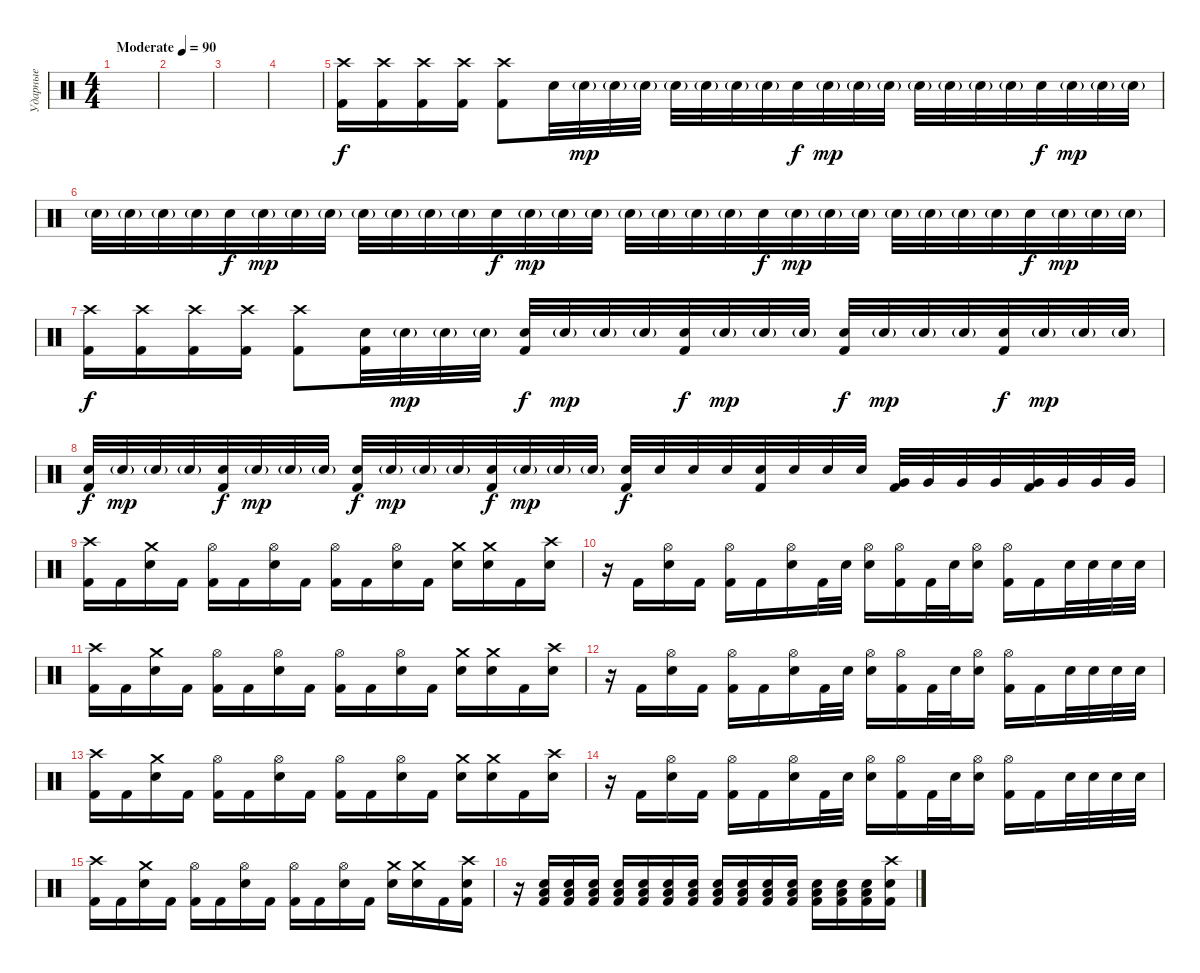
\track ("Ударные" "Ударные") {instrument percussion}
\staff {score}
\articulation defaults
\ts (4 4)
\tempo (90 "Moderate")
\clef neutral
\ks c
|
|
|
|
("Crash high (hit)" "Kick (hit) 2").16 ("Crash high (hit)" "Kick (hit) 2").16 ("Crash high (hit)" "Kick (hit) 2").16 ("Crash high (hit)" "Kick (hit) 2").16 ("Crash high (hit)" "Kick (hit) 2").8 "Electric Snare (hit)".32 "Electric Snare (hit)"{g}.32{dy mp} "Electric Snare (hit)"{g}.32 "Electric Snare (hit)"{g}.32 "Electric Snare (hit)"{g}.32 "Electric Snare (hit)"{g}.32 "Electric Snare (hit)"{g}.32 "Electric Snare (hit)"{g}.32 "Electric Snare (hit)".32{dy f} "Electric Snare (hit)"{g}.32{dy mp} "Electric Snare (hit)"{g}.32 "Electric Snare (hit)"{g}.32 "Electric Snare (hit)"{g}.32 "Electric Snare (hit)"{g}.32 "Electric Snare (hit)"{g}.32 "Electric Snare (hit)"{g}.32 "Electric Snare (hit)".32{dy f} "Electric Snare (hit)"{g}.32{dy mp} "Electric Snare (hit)"{g}.32 "Electric Snare (hit)"{g}.32 |
"Electric Snare (hit)"{g}.32 "Electric Snare (hit)"{g}.32 "Electric Snare (hit)"{g}.32 "Electric Snare (hit)"{g}.32 "Electric Snare (hit)".32{dy f} "Electric Snare (hit)"{g}.32{dy mp} "Electric Snare (hit)"{g}.32 "Electric Snare (hit)"{g}.32 "Electric Snare (hit)"{g}.32 "Electric Snare (hit)"{g}.32 "Electric Snare (hit)"{g}.32 "Electric Snare (hit)"{g}.32 "Electric Snare (hit)".32{dy f} "Electric Snare (hit)"{g}.32{dy mp} "Electric Snare (hit)"{g}.32 "Electric Snare (hit)"{g}.32 "Electric Snare (hit)"{g}.32 "Electric Snare (hit)"{g}.32 "Electric Snare (hit)"{g}.32 "Electric Snare (hit)"{g}.32 "Electric Snare (hit)".32{dy f} "Electric Snare (hit)"{g}.32{dy mp} "Electric Snare (hit)"{g}.32 "Electric Snare (hit)"{g}.32 "Electric Snare (hit)"{g}.32 "Electric Snare (hit)"{g}.32 "Electric Snare (hit)"{g}.32 "Electric Snare (hit)"{g}.32 "Electric Snare (hit)".32{dy f} "Electric Snare (hit)"{g}.32{dy mp} "Electric Snare (hit)"{g}.32 "Electric Snare (hit)"{g}.32 |
("Crash high (hit)" "Kick (hit) 2").16{dy f} ("Crash high (hit)" "Kick (hit) 2").16 ("Crash high (hit)" "Kick (hit) 2").16 ("Crash high (hit)" "Kick (hit) 2").16 ("Crash high (hit)" "Kick (hit) 2").8 ("Electric Snare (hit)" "Kick (hit) 2").32 "Electric Snare (hit)"{g}.32{dy mp} "Electric Snare (hit)"{g}.32 "Electric Snare (hit)"{g}.32 ("Electric Snare (hit)" "Kick (hit) 2").32{dy f} "Electric Snare (hit)"{g}.32{dy mp} "Electric Snare (hit)"{g}.32 "Electric Snare (hit)"{g}.32 ("Electric Snare (hit)" "Kick (hit) 2").32{dy f} "Electric Snare (hit)"{g}.32{dy mp} "Electric Snare (hit)"{g}.32 "Electric Snare (hit)"{g}.32 ("Electric Snare (hit)" "Kick (hit) 2").32{dy f} "Electric Snare (hit)"{g}.32{dy mp} "Electric Snare (hit)"{g}.32 "Electric Snare (hit)"{g}.32 ("Electric Snare (hit)" "Kick (hit) 2").32{dy f} "Electric Snare (hit)"{g}.32{dy mp} "Electric Snare (hit)"{g}.32 "Electric Snare (hit)"{g}.32 |
("Electric Snare (hit)" "Kick (hit) 2").32{dy f} "Electric Snare (hit)"{g}.32{dy mp} "Electric Snare (hit)"{g}.32 "Electric Snare (hit)"{g}.32 ("Electric Snare (hit)" "Kick (hit) 2").32{dy f} "Electric Snare (hit)"{g}.32{dy mp} "Electric Snare (hit)"{g}.32 "Electric Snare (hit)"{g}.32 ("Electric Snare (hit)" "Kick (hit) 2").32{dy f} "Electric Snare (hit)"{g}.32{dy mp} "Electric Snare (hit)"{g}.32 "Electric Snare (hit)"{g}.32 ("Electric Snare (hit)" "Kick (hit) 2").32{dy f} "Electric Snare (hit)"{g}.32{dy mp} "Electric Snare (hit)"{g}.32 "Electric Snare (hit)"{g}.32 ("Electric Snare (hit)" "Kick (hit) 2").32{dy f} "Electric Snare (hit)".32 "Electric Snare (hit)".32 "Electric Snare (hit)".32 ("Electric Snare (hit)" "Kick (hit) 2").32 "Electric Snare (hit)".32 "Electric Snare (hit)".32 "Electric Snare (hit)".32 ("Very Low Tom (hit)" "Kick (hit) 2").32 "Very Low Tom (hit)".32 "Very Low Tom (hit)".32 "Very Low Tom (hit)".32 ("Very Low Tom (hit)" "Kick (hit) 2").32 "Very Low Tom (hit)".32 "Very Low Tom (hit)".32 "Very Low Tom (hit)".32 |
("Crash high (hit)" "Kick (hit) 2").16 "Kick (hit) 2".16 ("Crash medium (hit)" "Electric Snare (hit)").16 "Kick (hit) 2".16 ("Hi-Hat (open)" "Kick (hit) 2").16 "Kick (hit) 2".16 ("Hi-Hat (open)" "Electric Snare (hit)").16 "Kick (hit) 2".16 ("Hi-Hat (open)" "Kick (hit) 2").16 "Kick (hit) 2".16 ("Hi-Hat (open)" "Electric Snare (hit)").16 "Kick (hit) 2".16 ("Crash medium (hit)" "Electric Snare (hit)").16 ("Crash medium (hit)" "Electric Snare (hit)").16 "Kick (hit) 2".16 ("Crash high (hit)" "Electric Snare (hit)").16 |
r.16 "Kick (hit) 2".16 ("Hi-Hat (open)" "Electric Snare (hit)").16 "Kick (hit) 2".16 ("Hi-Hat (open)" "Kick (hit) 2").16 "Kick (hit) 2".16 ("Hi-Hat (open)" "Electric Snare (hit)").16 "Kick (hit) 2".32 "Electric Snare (hit)".32 ("Hi-Hat (open)" "Electric Snare (hit)").16 ("Hi-Hat (open)" "Kick (hit) 2").16 "Kick (hit) 2".32 "Electric Snare (hit)".32 ("Hi-Hat (open)" "Electric Snare (hit)").16 ("Hi-Hat (open)" "Kick (hit) 2").16 "Kick (hit) 2".16 "Electric Snare (hit)".32 "Electric Snare (hit)".32 "Electric Snare (hit)".32 "Electric Snare (hit)".32 |
("Crash high (hit)" "Kick (hit) 2").16 "Kick (hit) 2".16 ("Crash medium (hit)" "Electric Snare (hit)").16 "Kick (hit) 2".16 ("Hi-Hat (open)" "Kick (hit) 2").16 "Kick (hit) 2".16 ("Hi-Hat (open)" "Electric Snare (hit)").16 "Kick (hit) 2".16 ("Hi-Hat (open)" "Kick (hit) 2").16 "Kick (hit) 2".16 ("Hi-Hat (open)" "Electric Snare (hit)").16 "Kick (hit) 2".16 ("Crash medium (hit)" "Electric Snare (hit)").16 ("Crash medium (hit)" "Electric Snare (hit)").16 "Kick (hit) 2".16 ("Crash high (hit)" "Electric Snare (hit)").16 |
r.16 "Kick (hit) 2".16 ("Hi-Hat (open)" "Electric Snare (hit)").16 "Kick (hit) 2".16 ("Hi-Hat (open)" "Kick (hit) 2").16 "Kick (hit) 2".16 ("Hi-Hat (open)" "Electric Snare (hit)").16 "Kick (hit) 2".32 "Electric Snare (hit)".32 ("Hi-Hat (open)" "Electric Snare (hit)").16 ("Hi-Hat (open)" "Kick (hit) 2").16 "Kick (hit) 2".32 "Electric Snare (hit)".32 ("Hi-Hat (open)" "Electric Snare (hit)").16 ("Hi-Hat (open)" "Kick (hit) 2").16 "Kick (hit) 2".16 "Electric Snare (hit)".32 "Electric Snare (hit)".32 "Electric Snare (hit)".32 "Electric Snare (hit)".32 |
("Crash high (hit)" "Kick (hit) 2").16 "Kick (hit) 2".16 ("Crash medium (hit)" "Electric Snare (hit)").16 "Kick (hit) 2".16 ("Hi-Hat (open)" "Kick (hit) 2").16 "Kick (hit) 2".16 ("Hi-Hat (open)" "Electric Snare (hit)").16 "Kick (hit) 2".16 ("Hi-Hat (open)" "Kick (hit) 2").16 "Kick (hit) 2".16 ("Hi-Hat (open)" "Electric Snare (hit)").16 "Kick (hit) 2".16 ("Crash medium (hit)" "Electric Snare (hit)").16 ("Crash medium (hit)" "Electric Snare (hit)").16 "Kick (hit) 2".16 ("Crash high (hit)" "Electric Snare (hit)").16 |
r.16 "Kick (hit) 2".16 ("Hi-Hat (open)" "Electric Snare (hit)").16 "Kick (hit) 2".16 ("Hi-Hat (open)" "Kick (hit) 2").16 "Kick (hit) 2".16 ("Hi-Hat (open)" "Electric Snare (hit)").16 "Kick (hit) 2".32 "Electric Snare (hit)".32 ("Hi-Hat (open)" "Electric Snare (hit)").16 ("Hi-Hat (open)" "Kick (hit) 2").16 "Kick (hit) 2".32 "Electric Snare (hit)".32 ("Hi-Hat (open)" "Electric Snare (hit)").16 ("Hi-Hat (open)" "Kick (hit) 2").16 "Kick (hit) 2".16 "Electric Snare (hit)".32 "Electric Snare (hit)".32 "Electric Snare (hit)".32 "Electric Snare (hit)".32 |
("Crash high (hit)" "Kick (hit) 2").16 "Kick (hit) 2".16 ("Crash medium (hit)" "Electric Snare (hit)").16 "Kick (hit) 2".16 ("Hi-Hat (open)" "Kick (hit) 2").16 "Kick (hit) 2".16 ("Hi-Hat (open)" "Electric Snare (hit)").16 "Kick (hit) 2".16 ("Hi-Hat (open)" "Kick (hit) 2").16 "Kick (hit) 2".16 ("Hi-Hat (open)" "Electric Snare (hit)").16 "Kick (hit) 2".16 ("Crash medium (hit)" "Electric Snare (hit)").16 ("Crash medium (hit)" "Electric Snare (hit)").16 "Kick (hit) 2".16 ("Crash high (hit)" "Electric Snare (hit)" "Kick (hit) 2").16 |
r.16 ("Low Floor Tom (hit)" "Electric Snare (hit)" "Kick (hit) 2").16{volume 6} ("Low Floor Tom (hit)" "Electric Snare (hit)" "Kick (hit) 2").16 ("Low Floor Tom (hit)" "Electric Snare (hit)" "Kick (hit) 2").16 ("Low Floor Tom (hit)" "Electric Snare (hit)" "Kick (hit) 2").16{volume 13} ("Low Floor Tom (hit)" "Electric Snare (hit)" "Kick (hit) 2").16 ("Low Floor Tom (hit)" "Electric Snare (hit)" "Kick (hit) 2").16 ("Low Floor Tom (hit)" "Electric Snare (hit)" "Kick (hit) 2").16 ("Low Floor Tom (hit)" "Electric Snare (hit)" "Kick (hit) 2").16 ("Low Floor Tom (hit)" "Electric Snare (hit)" "Kick (hit) 2").16 ("Low Floor Tom (hit)" "Electric Snare (hit)" "Kick (hit) 2").16 ("Low Floor Tom (hit)" "Electric Snare (hit)" "Kick (hit) 2").16 ("Low Floor Tom (hit)" "Electric Snare (hit)" "Kick (hit) 2").16 ("Low Floor Tom (hit)" "Electric Snare (hit)" "Kick (hit) 2").16 ("Low Floor Tom (hit)" "Electric Snare (hit)" "Kick (hit) 2").16 ("Crash high (hit)" "Electric Snare (hit)" "Kick (hit) 2").16
